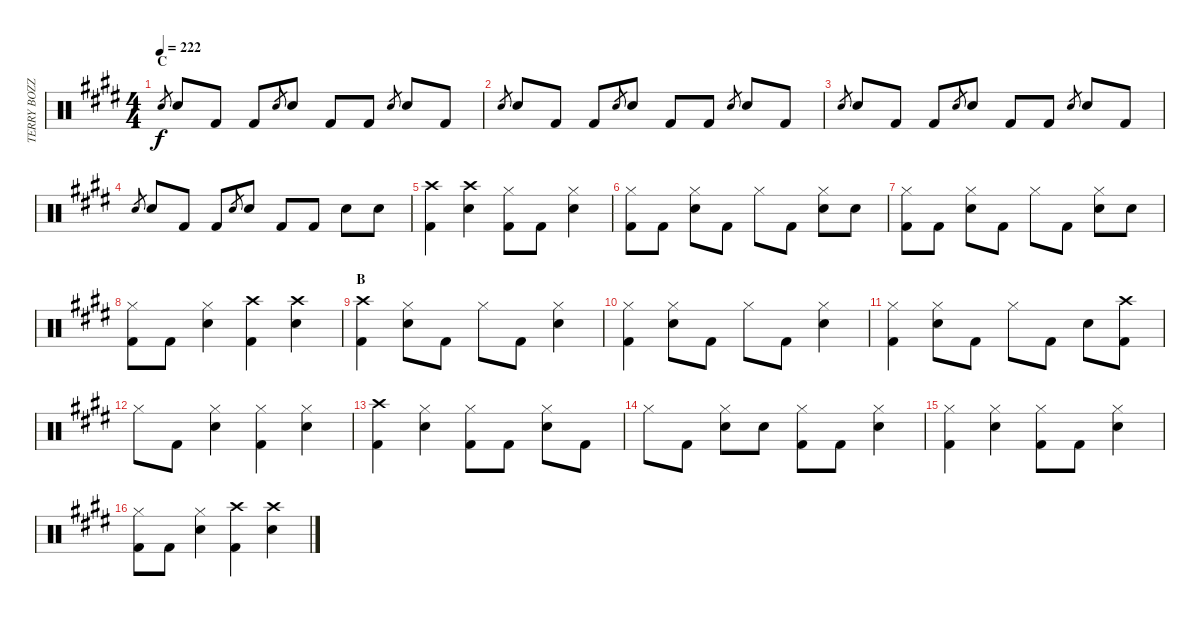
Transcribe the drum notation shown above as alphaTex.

\track ("TERRY BOZZIO" "TERRY BOZZ") {instrument percussion}
\staff {score}
\articulation defaults
\ts (4 4)
\section ("" "C")
\tempo 222
\clef neutral
\ks c#minor "Snare (hit) 2".8{gr dy f} "Snare (hit) 2".8 "Kick (hit) 2".8 "Kick (hit) 2".8 "Snare (hit) 2".8{gr} "Snare (hit) 2".8 "Kick (hit) 2".8 "Kick (hit) 2".8 "Snare (hit) 2".8{gr} "Snare (hit) 2".8 "Kick (hit) 2".8
|
"Snare (hit) 2".8{gr} "Snare (hit) 2".8 "Kick (hit) 2".8 "Kick (hit) 2".8 "Snare (hit) 2".8{gr} "Snare (hit) 2".8 "Kick (hit) 2".8 "Kick (hit) 2".8 "Snare (hit) 2".8{gr} "Snare (hit) 2".8 "Kick (hit) 2".8 |
"Snare (hit) 2".8{gr} "Snare (hit) 2".8 "Kick (hit) 2".8 "Kick (hit) 2".8 "Snare (hit) 2".8{gr} "Snare (hit) 2".8 "Kick (hit) 2".8 "Kick (hit) 2".8 "Snare (hit) 2".8{gr} "Snare (hit) 2".8 "Kick (hit) 2".8 |
"Snare (hit) 2".8{gr} "Snare (hit) 2".8 "Kick (hit) 2".8 "Kick (hit) 2".8 "Snare (hit) 2".8{gr} "Snare (hit) 2".8 "Kick (hit) 2".8 "Kick (hit) 2".8 "Snare (hit) 2".8 "Snare (hit) 2".8 |
("Crash high (hit)" "Kick (hit) 2").4 ("Crash high (hit)" "Snare (hit) 2").4 ("Hi-Hat (closed)" "Kick (hit) 2").8 "Kick (hit) 2".8 ("Hi-Hat (closed)" "Snare (hit) 2").4 |
("Hi-Hat (closed)" "Kick (hit) 2").8 "Kick (hit) 2".8 ("Hi-Hat (closed)" "Snare (hit) 2").8 "Kick (hit) 2".8 "Hi-Hat (closed)".8 "Kick (hit) 2".8 ("Hi-Hat (closed)" "Snare (hit) 2").8 "Snare (hit) 2".8 |
("Hi-Hat (closed)" "Kick (hit) 2").8 "Kick (hit) 2".8 ("Hi-Hat (closed)" "Snare (hit) 2").8 "Kick (hit) 2".8 "Hi-Hat (closed)".8 "Kick (hit) 2".8 ("Hi-Hat (closed)" "Snare (hit) 2").8 "Snare (hit) 2".8 |
("Hi-Hat (closed)" "Kick (hit) 2").8 "Kick (hit) 2".8 ("Hi-Hat (closed)" "Snare (hit) 2").4 ("Crash high (hit)" "Kick (hit) 2").4 ("Crash high (hit)" "Snare (hit) 2").4 |
\section ("" "B")
("Crash high (hit)" "Kick (hit) 2").4 ("Hi-Hat (closed)" "Snare (hit) 2").8 "Kick (hit) 2".8 "Hi-Hat (closed)".8 "Kick (hit) 2".8 ("Hi-Hat (closed)" "Snare (hit) 2").4 |
("Hi-Hat (closed)" "Kick (hit) 2").4 ("Hi-Hat (closed)" "Snare (hit) 2").8 "Kick (hit) 2".8 "Hi-Hat (closed)".8 "Kick (hit) 2".8 ("Hi-Hat (closed)" "Snare (hit) 2").4 |
("Hi-Hat (closed)" "Kick (hit) 2").4 ("Hi-Hat (closed)" "Snare (hit) 2").8 "Kick (hit) 2".8 "Hi-Hat (closed)".8 "Kick (hit) 2".8 "Snare (hit) 2".8 ("Crash high (hit)" "Kick (hit) 2").8 |
"Hi-Hat (closed)".8 "Kick (hit) 2".8 ("Hi-Hat (closed)" "Snare (hit) 2").4 ("Hi-Hat (closed)" "Kick (hit) 2").4 ("Hi-Hat (closed)" "Snare (hit) 2").4 |
("Crash high (hit)" "Kick (hit) 2").4 ("Hi-Hat (closed)" "Snare (hit) 2").4 ("Hi-Hat (closed)" "Kick (hit) 2").8 "Kick (hit) 2".8 ("Hi-Hat (closed)" "Snare (hit) 2").8 "Kick (hit) 2".8 |
"Hi-Hat (closed)".8 "Kick (hit) 2".8 ("Hi-Hat (closed)" "Snare (hit) 2").8 "Snare (hit) 2".8 ("Hi-Hat (closed)" "Kick (hit) 2").8 "Kick (hit) 2".8 ("Hi-Hat (closed)" "Snare (hit) 2").4 |
("Hi-Hat (closed)" "Kick (hit) 2").4 ("Hi-Hat (closed)" "Snare (hit) 2").4 ("Hi-Hat (closed)" "Kick (hit) 2").8 "Kick (hit) 2".8 ("Hi-Hat (closed)" "Snare (hit) 2").4 |
("Hi-Hat (closed)" "Kick (hit) 2").8 "Kick (hit) 2".8 ("Hi-Hat (closed)" "Snare (hit) 2").4 ("Crash high (hit)" "Kick (hit) 2").4 ("Crash high (hit)" "Snare (hit) 2").4
